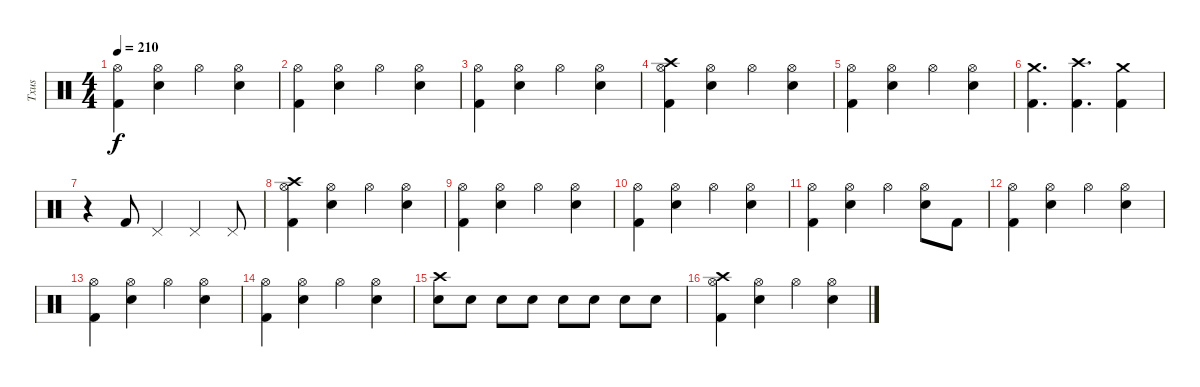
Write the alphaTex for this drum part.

\track ("Txus" "Txus") {instrument percussion}
\staff
\articulation defaults
\ts (4 4)
\tempo 210
\clef neutral
\ks c
("Hi-Hat (open)" "Kick (hit) 2").4{dy f} ("Hi-Hat (open)" "Electric Snare (hit)").4 "Hi-Hat (open)".4 ("Hi-Hat (open)" "Electric Snare (hit)").4 |
("Hi-Hat (open)" "Kick (hit) 2").4 ("Hi-Hat (open)" "Electric Snare (hit)").4 "Hi-Hat (open)".4 ("Hi-Hat (open)" "Electric Snare (hit)").4 |
("Hi-Hat (open)" "Kick (hit) 2").4 ("Hi-Hat (open)" "Electric Snare (hit)").4 "Hi-Hat (open)".4 ("Hi-Hat (open)" "Electric Snare (hit)").4 |
("Hi-Hat (open)" "Kick (hit) 2" "Crash high (hit)").4 ("Hi-Hat (open)" "Electric Snare (hit)").4 "Hi-Hat (open)".4 ("Hi-Hat (open)" "Electric Snare (hit)").4 |
("Hi-Hat (open)" "Kick (hit) 2").4 ("Hi-Hat (open)" "Electric Snare (hit)").4 "Hi-Hat (open)".4 ("Hi-Hat (open)" "Electric Snare (hit)").4 |
("Kick (hit) 2" "Crash medium (hit)").4{d} ("Kick (hit) 2" "Crash high (hit)").4{d} ("Kick (hit) 2" "Crash medium (hit)").4 |
r.4 "Kick (hit) 2".8 "Pedal Hi-Hat (hit)".4 "Pedal Hi-Hat (hit)".4 "Pedal Hi-Hat (hit)".8 |
("Hi-Hat (open)" "Kick (hit) 2" "Crash high (hit)").4 ("Hi-Hat (open)" "Electric Snare (hit)").4 "Hi-Hat (open)".4 ("Hi-Hat (open)" "Electric Snare (hit)").4 |
("Hi-Hat (open)" "Kick (hit) 2").4 ("Hi-Hat (open)" "Electric Snare (hit)").4 "Hi-Hat (open)".4 ("Hi-Hat (open)" "Electric Snare (hit)").4 |
("Hi-Hat (open)" "Kick (hit) 2").4 ("Hi-Hat (open)" "Electric Snare (hit)").4 "Hi-Hat (open)".4 ("Hi-Hat (open)" "Electric Snare (hit)").4 |
("Hi-Hat (open)" "Kick (hit) 2").4 ("Hi-Hat (open)" "Electric Snare (hit)").4 "Hi-Hat (open)".4 ("Hi-Hat (open)" "Electric Snare (hit)").8 "Kick (hit) 2".8 |
("Hi-Hat (open)" "Kick (hit) 2").4 ("Hi-Hat (open)" "Electric Snare (hit)").4 "Hi-Hat (open)".4 ("Hi-Hat (open)" "Electric Snare (hit)").4 |
("Hi-Hat (open)" "Kick (hit) 2").4 ("Hi-Hat (open)" "Electric Snare (hit)").4 "Hi-Hat (open)".4 ("Hi-Hat (open)" "Electric Snare (hit)").4 |
("Hi-Hat (open)" "Kick (hit) 2").4 ("Hi-Hat (open)" "Electric Snare (hit)").4 "Hi-Hat (open)".4 ("Hi-Hat (open)" "Electric Snare (hit)").4 |
("Electric Snare (hit)" "Crash high (hit)").8 "Electric Snare (hit)".8 "Electric Snare (hit)".8 "Electric Snare (hit)".8 "Electric Snare (hit)".8 "Electric Snare (hit)".8 "Electric Snare (hit)".8 "Electric Snare (hit)".8 |
("Hi-Hat (open)" "Kick (hit) 2" "Crash high (hit)").4 ("Hi-Hat (open)" "Electric Snare (hit)").4 "Hi-Hat (open)".4 ("Hi-Hat (open)" "Electric Snare (hit)").4
